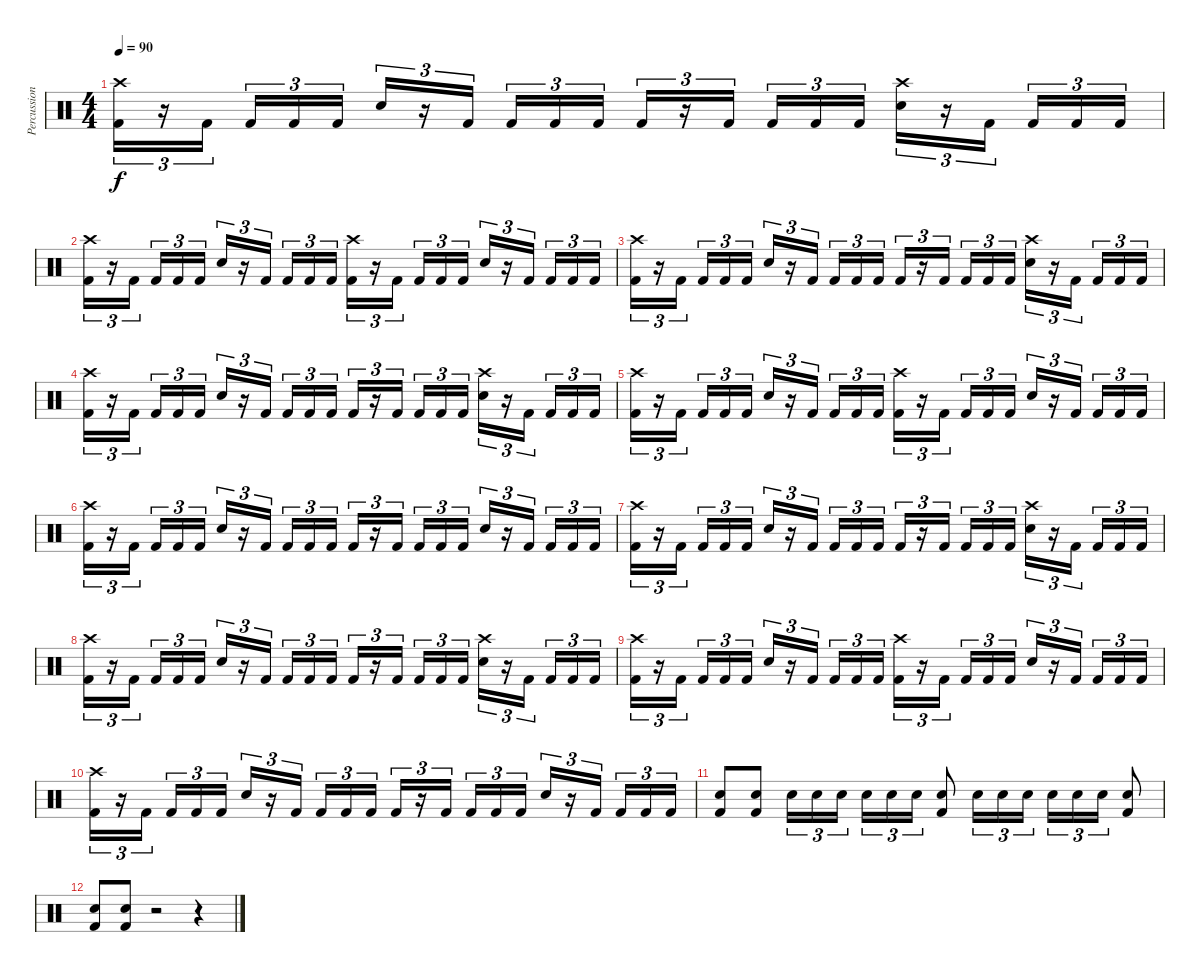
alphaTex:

\track ("Percussion" "Percussion") {instrument percussion}
\staff {score}
\articulation defaults
\ts (4 4)
\tempo 90
\clef neutral
\ks c
("Crash high (hit)" "Kick (hit) 2").16{tu (3 2) dy f} r.16{tu (3 2)} "Kick (hit) 2".16{tu (3 2) beam splitsecondary} "Kick (hit) 2".16{tu (3 2)} "Kick (hit) 2".16{tu (3 2)} "Kick (hit) 2".16{tu (3 2)} "Snare (hit) 2".16{tu (3 2)} r.16{tu (3 2)} "Kick (hit) 2".16{tu (3 2) beam splitsecondary} "Kick (hit) 2".16{tu (3 2)} "Kick (hit) 2".16{tu (3 2)} "Kick (hit) 2".16{tu (3 2)} "Kick (hit) 2".16{tu (3 2)} r.16{tu (3 2)} "Kick (hit) 2".16{tu (3 2) beam splitsecondary} "Kick (hit) 2".16{tu (3 2)} "Kick (hit) 2".16{tu (3 2)} "Kick (hit) 2".16{tu (3 2)} ("Crash high (hit)" "Snare (hit) 2").16{tu (3 2)} r.16{tu (3 2)} "Kick (hit) 2".16{tu (3 2) beam splitsecondary} "Kick (hit) 2".16{tu (3 2)} "Kick (hit) 2".16{tu (3 2)} "Kick (hit) 2".16{tu (3 2)} |
("Crash high (hit)" "Kick (hit) 2").16{tu (3 2)} r.16{tu (3 2)} "Kick (hit) 2".16{tu (3 2) beam splitsecondary} "Kick (hit) 2".16{tu (3 2)} "Kick (hit) 2".16{tu (3 2)} "Kick (hit) 2".16{tu (3 2)} "Snare (hit) 2".16{tu (3 2)} r.16{tu (3 2)} "Kick (hit) 2".16{tu (3 2) beam splitsecondary} "Kick (hit) 2".16{tu (3 2)} "Kick (hit) 2".16{tu (3 2)} "Kick (hit) 2".16{tu (3 2)} ("Crash high (hit)" "Kick (hit) 2").16{tu (3 2)} r.16{tu (3 2)} "Kick (hit) 2".16{tu (3 2) beam splitsecondary} "Kick (hit) 2".16{tu (3 2)} "Kick (hit) 2".16{tu (3 2)} "Kick (hit) 2".16{tu (3 2)} "Snare (hit) 2".16{tu (3 2)} r.16{tu (3 2)} "Kick (hit) 2".16{tu (3 2) beam splitsecondary} "Kick (hit) 2".16{tu (3 2)} "Kick (hit) 2".16{tu (3 2)} "Kick (hit) 2".16{tu (3 2)} |
("Crash high (hit)" "Kick (hit) 2").16{tu (3 2)} r.16{tu (3 2)} "Kick (hit) 2".16{tu (3 2) beam splitsecondary} "Kick (hit) 2".16{tu (3 2)} "Kick (hit) 2".16{tu (3 2)} "Kick (hit) 2".16{tu (3 2)} "Snare (hit) 2".16{tu (3 2)} r.16{tu (3 2)} "Kick (hit) 2".16{tu (3 2) beam splitsecondary} "Kick (hit) 2".16{tu (3 2)} "Kick (hit) 2".16{tu (3 2)} "Kick (hit) 2".16{tu (3 2)} "Kick (hit) 2".16{tu (3 2)} r.16{tu (3 2)} "Kick (hit) 2".16{tu (3 2) beam splitsecondary} "Kick (hit) 2".16{tu (3 2)} "Kick (hit) 2".16{tu (3 2)} "Kick (hit) 2".16{tu (3 2)} ("Crash high (hit)" "Snare (hit) 2").16{tu (3 2)} r.16{tu (3 2)} "Kick (hit) 2".16{tu (3 2) beam splitsecondary} "Kick (hit) 2".16{tu (3 2)} "Kick (hit) 2".16{tu (3 2)} "Kick (hit) 2".16{tu (3 2)} |
("Crash high (hit)" "Kick (hit) 2").16{tu (3 2)} r.16{tu (3 2)} "Kick (hit) 2".16{tu (3 2) beam splitsecondary} "Kick (hit) 2".16{tu (3 2)} "Kick (hit) 2".16{tu (3 2)} "Kick (hit) 2".16{tu (3 2)} "Snare (hit) 2".16{tu (3 2)} r.16{tu (3 2)} "Kick (hit) 2".16{tu (3 2) beam splitsecondary} "Kick (hit) 2".16{tu (3 2)} "Kick (hit) 2".16{tu (3 2)} "Kick (hit) 2".16{tu (3 2)} "Kick (hit) 2".16{tu (3 2)} r.16{tu (3 2)} "Kick (hit) 2".16{tu (3 2) beam splitsecondary} "Kick (hit) 2".16{tu (3 2)} "Kick (hit) 2".16{tu (3 2)} "Kick (hit) 2".16{tu (3 2)} ("Crash high (hit)" "Snare (hit) 2").16{tu (3 2)} r.16{tu (3 2)} "Kick (hit) 2".16{tu (3 2) beam splitsecondary} "Kick (hit) 2".16{tu (3 2)} "Kick (hit) 2".16{tu (3 2)} "Kick (hit) 2".16{tu (3 2)} |
("Crash high (hit)" "Kick (hit) 2").16{tu (3 2)} r.16{tu (3 2)} "Kick (hit) 2".16{tu (3 2) beam splitsecondary} "Kick (hit) 2".16{tu (3 2)} "Kick (hit) 2".16{tu (3 2)} "Kick (hit) 2".16{tu (3 2)} "Snare (hit) 2".16{tu (3 2)} r.16{tu (3 2)} "Kick (hit) 2".16{tu (3 2) beam splitsecondary} "Kick (hit) 2".16{tu (3 2)} "Kick (hit) 2".16{tu (3 2)} "Kick (hit) 2".16{tu (3 2)} ("Crash high (hit)" "Kick (hit) 2").16{tu (3 2)} r.16{tu (3 2)} "Kick (hit) 2".16{tu (3 2) beam splitsecondary} "Kick (hit) 2".16{tu (3 2)} "Kick (hit) 2".16{tu (3 2)} "Kick (hit) 2".16{tu (3 2)} "Snare (hit) 2".16{tu (3 2)} r.16{tu (3 2)} "Kick (hit) 2".16{tu (3 2) beam splitsecondary} "Kick (hit) 2".16{tu (3 2)} "Kick (hit) 2".16{tu (3 2)} "Kick (hit) 2".16{tu (3 2)} |
("Crash high (hit)" "Kick (hit) 2").16{tu (3 2)} r.16{tu (3 2)} "Kick (hit) 2".16{tu (3 2) beam splitsecondary} "Kick (hit) 2".16{tu (3 2)} "Kick (hit) 2".16{tu (3 2)} "Kick (hit) 2".16{tu (3 2)} "Snare (hit) 2".16{tu (3 2)} r.16{tu (3 2)} "Kick (hit) 2".16{tu (3 2) beam splitsecondary} "Kick (hit) 2".16{tu (3 2)} "Kick (hit) 2".16{tu (3 2)} "Kick (hit) 2".16{tu (3 2)} "Kick (hit) 2".16{tu (3 2)} r.16{tu (3 2)} "Kick (hit) 2".16{tu (3 2) beam splitsecondary} "Kick (hit) 2".16{tu (3 2)} "Kick (hit) 2".16{tu (3 2)} "Kick (hit) 2".16{tu (3 2)} "Snare (hit) 2".16{tu (3 2)} r.16{tu (3 2)} "Kick (hit) 2".16{tu (3 2) beam splitsecondary} "Kick (hit) 2".16{tu (3 2)} "Kick (hit) 2".16{tu (3 2)} "Kick (hit) 2".16{tu (3 2)} |
("Crash high (hit)" "Kick (hit) 2").16{tu (3 2)} r.16{tu (3 2)} "Kick (hit) 2".16{tu (3 2) beam splitsecondary} "Kick (hit) 2".16{tu (3 2)} "Kick (hit) 2".16{tu (3 2)} "Kick (hit) 2".16{tu (3 2)} "Snare (hit) 2".16{tu (3 2)} r.16{tu (3 2)} "Kick (hit) 2".16{tu (3 2) beam splitsecondary} "Kick (hit) 2".16{tu (3 2)} "Kick (hit) 2".16{tu (3 2)} "Kick (hit) 2".16{tu (3 2)} "Kick (hit) 2".16{tu (3 2)} r.16{tu (3 2)} "Kick (hit) 2".16{tu (3 2) beam splitsecondary} "Kick (hit) 2".16{tu (3 2)} "Kick (hit) 2".16{tu (3 2)} "Kick (hit) 2".16{tu (3 2)} ("Crash high (hit)" "Snare (hit) 2").16{tu (3 2)} r.16{tu (3 2)} "Kick (hit) 2".16{tu (3 2) beam splitsecondary} "Kick (hit) 2".16{tu (3 2)} "Kick (hit) 2".16{tu (3 2)} "Kick (hit) 2".16{tu (3 2)} |
("Crash high (hit)" "Kick (hit) 2").16{tu (3 2)} r.16{tu (3 2)} "Kick (hit) 2".16{tu (3 2) beam splitsecondary} "Kick (hit) 2".16{tu (3 2)} "Kick (hit) 2".16{tu (3 2)} "Kick (hit) 2".16{tu (3 2)} "Snare (hit) 2".16{tu (3 2)} r.16{tu (3 2)} "Kick (hit) 2".16{tu (3 2) beam splitsecondary} "Kick (hit) 2".16{tu (3 2)} "Kick (hit) 2".16{tu (3 2)} "Kick (hit) 2".16{tu (3 2)} "Kick (hit) 2".16{tu (3 2)} r.16{tu (3 2)} "Kick (hit) 2".16{tu (3 2) beam splitsecondary} "Kick (hit) 2".16{tu (3 2)} "Kick (hit) 2".16{tu (3 2)} "Kick (hit) 2".16{tu (3 2)} ("Crash high (hit)" "Snare (hit) 2").16{tu (3 2)} r.16{tu (3 2)} "Kick (hit) 2".16{tu (3 2) beam splitsecondary} "Kick (hit) 2".16{tu (3 2)} "Kick (hit) 2".16{tu (3 2)} "Kick (hit) 2".16{tu (3 2)} |
("Crash high (hit)" "Kick (hit) 2").16{tu (3 2)} r.16{tu (3 2)} "Kick (hit) 2".16{tu (3 2) beam splitsecondary} "Kick (hit) 2".16{tu (3 2)} "Kick (hit) 2".16{tu (3 2)} "Kick (hit) 2".16{tu (3 2)} "Snare (hit) 2".16{tu (3 2)} r.16{tu (3 2)} "Kick (hit) 2".16{tu (3 2) beam splitsecondary} "Kick (hit) 2".16{tu (3 2)} "Kick (hit) 2".16{tu (3 2)} "Kick (hit) 2".16{tu (3 2)} ("Crash high (hit)" "Kick (hit) 2").16{tu (3 2)} r.16{tu (3 2)} "Kick (hit) 2".16{tu (3 2) beam splitsecondary} "Kick (hit) 2".16{tu (3 2)} "Kick (hit) 2".16{tu (3 2)} "Kick (hit) 2".16{tu (3 2)} "Snare (hit) 2".16{tu (3 2)} r.16{tu (3 2)} "Kick (hit) 2".16{tu (3 2) beam splitsecondary} "Kick (hit) 2".16{tu (3 2)} "Kick (hit) 2".16{tu (3 2)} "Kick (hit) 2".16{tu (3 2)} |
("Crash high (hit)" "Kick (hit) 2").16{tu (3 2)} r.16{tu (3 2)} "Kick (hit) 2".16{tu (3 2) beam splitsecondary} "Kick (hit) 2".16{tu (3 2)} "Kick (hit) 2".16{tu (3 2)} "Kick (hit) 2".16{tu (3 2)} "Snare (hit) 2".16{tu (3 2)} r.16{tu (3 2)} "Kick (hit) 2".16{tu (3 2) beam splitsecondary} "Kick (hit) 2".16{tu (3 2)} "Kick (hit) 2".16{tu (3 2)} "Kick (hit) 2".16{tu (3 2)} "Kick (hit) 2".16{tu (3 2)} r.16{tu (3 2)} "Kick (hit) 2".16{tu (3 2) beam splitsecondary} "Kick (hit) 2".16{tu (3 2)} "Kick (hit) 2".16{tu (3 2)} "Kick (hit) 2".16{tu (3 2)} "Snare (hit) 2".16{tu (3 2)} r.16{tu (3 2)} "Kick (hit) 2".16{tu (3 2) beam splitsecondary} "Kick (hit) 2".16{tu (3 2)} "Kick (hit) 2".16{tu (3 2)} "Kick (hit) 2".16{tu (3 2)} |
("Snare (hit) 2" "Kick (hit) 2").8 ("Snare (hit) 2" "Kick (hit) 2").8 "Snare (hit) 2".16{tu (3 2)} "Snare (hit) 2".16{tu (3 2)} "Snare (hit) 2".16{tu (3 2) beam splitsecondary} "Snare (hit) 2".16{tu (3 2)} "Snare (hit) 2".16{tu (3 2)} "Snare (hit) 2".16{tu (3 2)} ("Snare (hit) 2" "Kick (hit) 2").8 "Snare (hit) 2".16{tu (3 2)} "Snare (hit) 2".16{tu (3 2)} "Snare (hit) 2".16{tu (3 2)} "Snare (hit) 2".16{tu (3 2)} "Snare (hit) 2".16{tu (3 2)} "Snare (hit) 2".16{tu (3 2)} ("Snare (hit) 2" "Kick (hit) 2").8 |
("Snare (hit) 2" "Kick (hit) 2").8 ("Snare (hit) 2" "Kick (hit) 2").8 r.2 r.4
